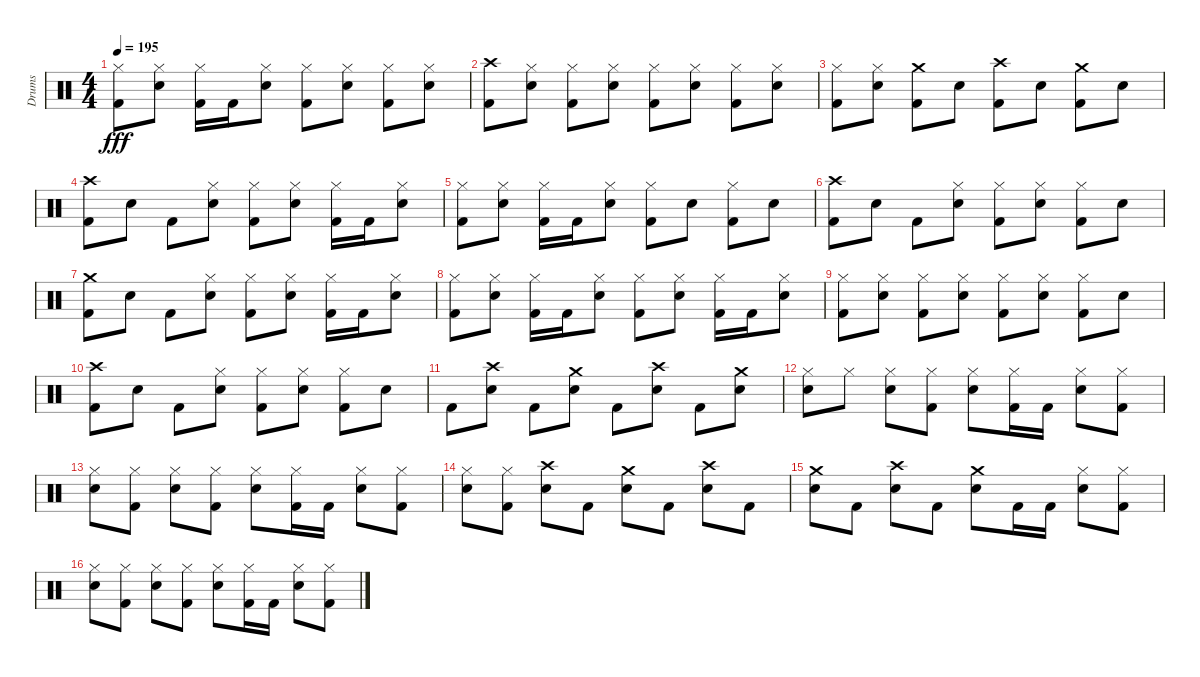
\track ("Drums" "Drums") {instrument percussion}
\staff {score}
\articulation defaults
\ts (4 4)
\tempo 195
\clef neutral
\ks c
("Kick (hit) 2" "Hi-Hat (closed)").8{dy fff} ("Metronome (bell)" "Hi-Hat (closed)").8 ("Kick (hit) 2" "Hi-Hat (closed)").16 "Kick (hit) 2".16 ("Metronome (bell)" "Hi-Hat (closed)").8 ("Kick (hit) 2" "Hi-Hat (closed)").8 ("Metronome (bell)" "Hi-Hat (closed)").8 ("Kick (hit) 2" "Hi-Hat (closed)").8 ("Metronome (bell)" "Hi-Hat (closed)").8 |
("Kick (hit) 2" "Crash high (hit)").8 ("Metronome (bell)" "Hi-Hat (closed)").8 ("Kick (hit) 2" "Hi-Hat (closed)").8 ("Metronome (bell)" "Hi-Hat (closed)").8 ("Kick (hit) 2" "Hi-Hat (closed)").8 ("Metronome (bell)" "Hi-Hat (closed)").8 ("Kick (hit) 2" "Hi-Hat (closed)").8 ("Metronome (bell)" "Hi-Hat (closed)").8 |
("Kick (hit) 2" "Hi-Hat (closed)").8 ("Metronome (bell)" "Hi-Hat (closed)").8 ("Kick (hit) 2" "Crash medium (hit)").8 "Metronome (bell)".8 ("Kick (hit) 2" "Crash high (hit)").8 "Metronome (bell)".8 ("Kick (hit) 2" "Crash medium (hit)").8 "Metronome (bell)".8 |
("Kick (hit) 2" "Crash high (hit)").8 "Metronome (bell)".8 "Kick (hit) 2".8 ("Metronome (bell)" "Hi-Hat (closed)").8 ("Kick (hit) 2" "Hi-Hat (closed)").8 ("Metronome (bell)" "Hi-Hat (closed)").8 ("Kick (hit) 2" "Hi-Hat (closed)").16 "Kick (hit) 2".16 ("Metronome (bell)" "Hi-Hat (closed)").8 |
("Kick (hit) 2" "Hi-Hat (closed)").8 ("Metronome (bell)" "Hi-Hat (closed)").8 ("Kick (hit) 2" "Hi-Hat (closed)").16 "Kick (hit) 2".16 ("Metronome (bell)" "Hi-Hat (closed)").8 ("Kick (hit) 2" "Hi-Hat (closed)").8 "Metronome (bell)".8 ("Kick (hit) 2" "Hi-Hat (closed)").8 "Metronome (bell)".8 |
("Kick (hit) 2" "Crash high (hit)").8 "Metronome (bell)".8 "Kick (hit) 2".8 ("Metronome (bell)" "Hi-Hat (closed)").8 ("Kick (hit) 2" "Hi-Hat (closed)").8 ("Metronome (bell)" "Hi-Hat (closed)").8 ("Kick (hit) 2" "Hi-Hat (closed)").8 "Metronome (bell)".8 |
("Kick (hit) 2" "Crash medium (hit)").8 "Metronome (bell)".8 "Kick (hit) 2".8 ("Metronome (bell)" "Hi-Hat (closed)").8 ("Kick (hit) 2" "Hi-Hat (closed)").8 ("Metronome (bell)" "Hi-Hat (closed)").8 ("Kick (hit) 2" "Hi-Hat (closed)").16 "Kick (hit) 2".16 ("Metronome (bell)" "Hi-Hat (closed)").8 |
("Kick (hit) 2" "Hi-Hat (closed)").8 ("Metronome (bell)" "Hi-Hat (closed)").8 ("Kick (hit) 2" "Hi-Hat (closed)").16 "Kick (hit) 2".16 ("Metronome (bell)" "Hi-Hat (closed)").8 ("Kick (hit) 2" "Hi-Hat (closed)").8 ("Metronome (bell)" "Hi-Hat (closed)").8 ("Kick (hit) 2" "Hi-Hat (closed)").16 "Kick (hit) 2".16 ("Metronome (bell)" "Hi-Hat (closed)").8 |
("Kick (hit) 2" "Hi-Hat (closed)").8 ("Metronome (bell)" "Hi-Hat (closed)").8 ("Kick (hit) 2" "Hi-Hat (closed)").8 ("Metronome (bell)" "Hi-Hat (closed)").8 ("Kick (hit) 2" "Hi-Hat (closed)").8 ("Metronome (bell)" "Hi-Hat (closed)").8 ("Kick (hit) 2" "Hi-Hat (closed)").8 "Metronome (bell)".8 |
("Kick (hit) 2" "Crash high (hit)").8 "Metronome (bell)".8 "Kick (hit) 2".8 ("Metronome (bell)" "Hi-Hat (closed)").8 ("Kick (hit) 2" "Hi-Hat (closed)").8 ("Metronome (bell)" "Hi-Hat (closed)").8 ("Kick (hit) 2" "Hi-Hat (closed)").8 "Metronome (bell)".8 |
"Kick (hit) 2".8 ("Metronome (bell)" "Crash high (hit)").8 "Kick (hit) 2".8 ("Metronome (bell)" "Crash medium (hit)").8 "Kick (hit) 2".8 ("Metronome (bell)" "Crash high (hit)").8 "Kick (hit) 2".8 ("Metronome (bell)" "Crash medium (hit)").8 |
("Metronome (bell)" "Hi-Hat (closed)").8 "Hi-Hat (closed)".8 ("Metronome (bell)" "Hi-Hat (closed)").8 ("Kick (hit) 2" "Hi-Hat (closed)").8 ("Metronome (bell)" "Hi-Hat (closed)").8 ("Kick (hit) 2" "Hi-Hat (closed)").16 "Kick (hit) 2".16 ("Metronome (bell)" "Hi-Hat (closed)").8 ("Kick (hit) 2" "Hi-Hat (closed)").8 |
("Metronome (bell)" "Hi-Hat (closed)").8 ("Kick (hit) 2" "Hi-Hat (closed)").8 ("Metronome (bell)" "Hi-Hat (closed)").8 ("Kick (hit) 2" "Hi-Hat (closed)").8 ("Metronome (bell)" "Hi-Hat (closed)").8 ("Kick (hit) 2" "Hi-Hat (closed)").16 "Kick (hit) 2".16 ("Metronome (bell)" "Hi-Hat (closed)").8 ("Kick (hit) 2" "Hi-Hat (closed)").8 |
("Metronome (bell)" "Hi-Hat (closed)").8 ("Kick (hit) 2" "Hi-Hat (closed)").8 ("Metronome (bell)" "Crash high (hit)").8 "Kick (hit) 2".8 ("Metronome (bell)" "Crash medium (hit)").8 "Kick (hit) 2".8 ("Metronome (bell)" "Crash high (hit)").8 "Kick (hit) 2".8 |
("Metronome (bell)" "Crash medium (hit)").8 "Kick (hit) 2".8 ("Metronome (bell)" "Crash high (hit)").8 "Kick (hit) 2".8 ("Metronome (bell)" "Crash medium (hit)").8 "Kick (hit) 2".16 "Kick (hit) 2".16 ("Metronome (bell)" "Hi-Hat (closed)").8 ("Kick (hit) 2" "Hi-Hat (closed)").8 |
("Metronome (bell)" "Hi-Hat (closed)").8 ("Kick (hit) 2" "Hi-Hat (closed)").8 ("Metronome (bell)" "Hi-Hat (closed)").8 ("Kick (hit) 2" "Hi-Hat (closed)").8 ("Metronome (bell)" "Hi-Hat (closed)").8 ("Kick (hit) 2" "Hi-Hat (closed)").16 "Kick (hit) 2".16 ("Metronome (bell)" "Hi-Hat (closed)").8 ("Kick (hit) 2" "Hi-Hat (closed)").8
